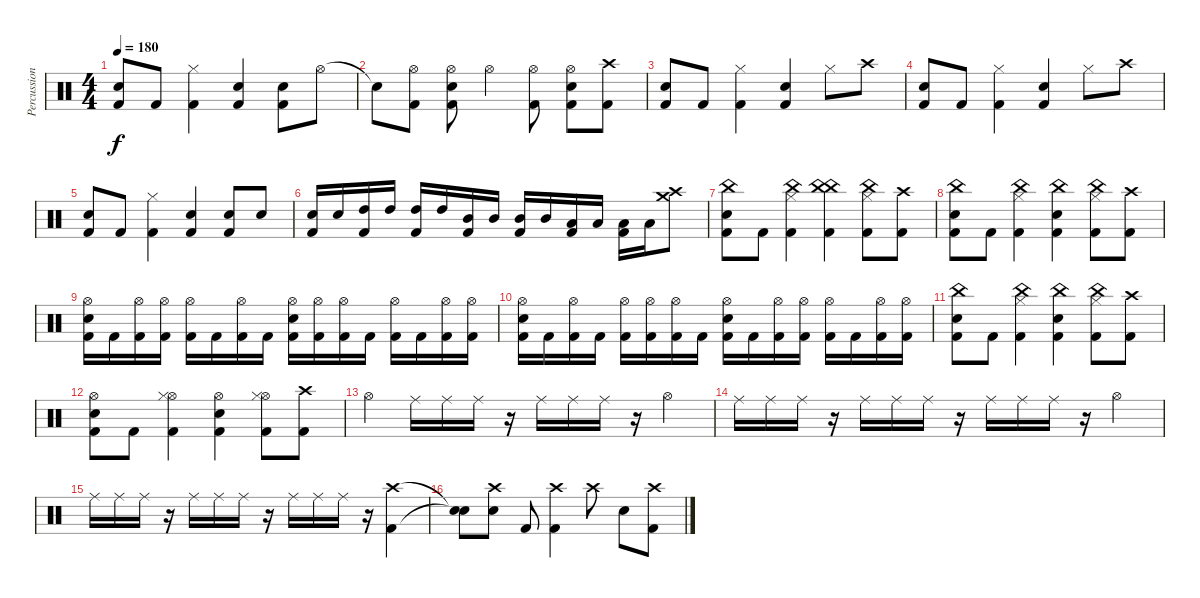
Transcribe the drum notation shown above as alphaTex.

\track ("Percussion" "Percussion") {instrument percussion}
\staff {score}
\articulation defaults
\ts (4 4)
\tempo 180
\clef neutral
\ks c
("Snare (hit) 2" "Kick (hit) 2").8{dy f} "Kick (hit) 2".8 ("Hi-Hat (closed)" "Kick (hit) 2").4 ("Snare (hit) 2" "Kick (hit) 2").4 ("Snare (hit) 2" "Kick (hit) 2").8 "Hi-Hat (open)".8 |
"Snare (hit)"{t}.8 ("Hi-Hat (open)" "Kick (hit) 2").8 ("Hi-Hat (open)" "Snare (hit) 2" "Kick (hit) 2").8 "Hi-Hat (open)".4 ("Hi-Hat (open)" "Kick (hit) 2").8 ("Hi-Hat (open)" "Snare (hit) 2" "Kick (hit) 2").8 ("Crash high (hit)" "Kick (hit) 2").8 |
("Snare (hit) 2" "Kick (hit) 2").8 "Kick (hit) 2".8 ("Hi-Hat (closed)" "Kick (hit) 2").4 ("Snare (hit) 2" "Kick (hit) 2").4 "Hi-Hat (closed)".8 "Crash high (hit)".8 |
("Snare (hit) 2" "Kick (hit) 2").8 "Kick (hit) 2".8 ("Hi-Hat (closed)" "Kick (hit) 2").4 ("Snare (hit) 2" "Kick (hit) 2").4 "Hi-Hat (closed)".8 "Crash high (hit)".8 |
("Snare (hit) 2" "Kick (hit) 2").8 "Kick (hit) 2".8 ("Hi-Hat (closed)" "Kick (hit) 2").4 ("Snare (hit) 2" "Kick (hit) 2").4 ("Snare (hit) 2" "Kick (hit) 2").8 "Snare (hit) 2".8 |
("Snare (hit) 2" "Kick (hit) 2").16 "Snare (hit) 2".16 ("High Tom (hit)" "Kick (hit) 2").16 "High Tom (hit)".16 ("High Tom (hit)" "Kick (hit) 2").16 "High Tom (hit)".16 ("Mid Tom (hit)" "Kick (hit) 2").16 "Mid Tom (hit)".16 ("Mid Tom (hit)" "Kick (hit) 2").16 "Mid Tom (hit)".16 ("Low Tom (hit)" "Kick (hit) 2").16 "Low Tom (hit)".16 ("Low Tom (hit)" "Kick (hit) 2").16 "Low Tom (hit)".16 ("Crash high (hit)" "Crash medium (hit)").8 |
("China (hit)" "Snare (hit) 2" "Kick (hit) 2").8 "Kick (hit) 2".8 ("China (hit)" "Hi-Hat (closed)" "Kick (hit) 2").4 ("China (hit)" "China (hit)" "Kick (hit) 2").4 ("China (hit)" "Hi-Hat (closed)" "Kick (hit) 2").8 ("Crash high (hit)" "Kick (hit) 2").8 |
("China (hit)" "Snare (hit) 2" "Kick (hit) 2").8 "Kick (hit) 2".8 ("China (hit)" "Hi-Hat (closed)" "Kick (hit) 2").4 ("China (hit)" "Snare (hit) 2" "Kick (hit) 2").4 ("China (hit)" "Hi-Hat (closed)" "Kick (hit) 2").8 ("Crash high (hit)" "Kick (hit) 2").8 |
("Hi-Hat (open)" "Snare (hit) 2" "Kick (hit) 2").16 "Kick (hit) 2".16 ("Hi-Hat (open)" "Kick (hit) 2").16 ("Hi-Hat (open)" "Kick (hit) 2").16 ("Hi-Hat (open)" "Kick (hit) 2").16 "Kick (hit) 2".16 ("Hi-Hat (open)" "Kick (hit) 2").16 "Kick (hit) 2".16 ("Hi-Hat (open)" "Snare (hit) 2" "Kick (hit) 2").16 ("Hi-Hat (open)" "Kick (hit) 2").16 ("Hi-Hat (open)" "Kick (hit) 2").16 "Kick (hit) 2".16 ("Hi-Hat (open)" "Kick (hit) 2").16 "Kick (hit) 2".16 ("Hi-Hat (open)" "Kick (hit) 2").16 ("Hi-Hat (open)" "Kick (hit) 2").16 |
("Hi-Hat (open)" "Snare (hit) 2" "Kick (hit) 2").16 "Kick (hit) 2".16 ("Hi-Hat (open)" "Kick (hit) 2").16 "Kick (hit) 2".16 ("Hi-Hat (open)" "Kick (hit) 2").16 ("Hi-Hat (open)" "Kick (hit) 2").16 ("Hi-Hat (open)" "Kick (hit) 2").16 "Kick (hit) 2".16 ("Hi-Hat (open)" "Snare (hit) 2" "Kick (hit) 2").16 "Kick (hit) 2".16 ("Hi-Hat (open)" "Kick (hit) 2").16 ("Hi-Hat (open)" "Kick (hit) 2").16 ("Hi-Hat (open)" "Kick (hit) 2").16 "Kick (hit) 2".16 ("Hi-Hat (open)" "Kick (hit) 2").16 ("Hi-Hat (open)" "Kick (hit) 2").16 |
("China (hit)" "Snare (hit) 2" "Kick (hit) 2").8 "Kick (hit) 2".8 ("China (hit)" "Hi-Hat (closed)" "Kick (hit) 2").4 ("China (hit)" "Snare (hit) 2" "Kick (hit) 2").4 ("China (hit)" "Hi-Hat (closed)" "Kick (hit) 2").8 ("Crash high (hit)" "Kick (hit) 2").8 |
("Hi-Hat (open)" "Snare (hit) 2" "Kick (hit) 2").8 "Kick (hit) 2".8 ("Hi-Hat (open)" "Hi-Hat (closed)" "Kick (hit) 2").4 ("Hi-Hat (open)" "Snare (hit) 2" "Kick (hit) 2").4 ("Hi-Hat (open)" "Hi-Hat (closed)" "Kick (hit) 2").8 ("Crash high (hit)" "Kick (hit) 2").8 |
"Hi-Hat (open)".4 "Ride (middle)".16 "Ride (middle)".16 "Ride (middle)".16 r.16 "Ride (middle)".16 "Ride (middle)".16 "Ride (middle)".16 r.16 "Hi-Hat (open)".4 |
"Ride (middle)".16 "Ride (middle)".16 "Ride (middle)".16 r.16 "Ride (middle)".16 "Ride (middle)".16 "Ride (middle)".16 r.16 "Ride (middle)".16 "Ride (middle)".16 "Ride (middle)".16 r.16 "Hi-Hat (open)".4 |
"Ride (middle)".16 "Ride (middle)".16 "Ride (middle)".16 r.16 "Ride (middle)".16 "Ride (middle)".16 "Ride (middle)".16 r.16 "Ride (middle)".16 "Ride (middle)".16 "Ride (middle)".16 r.16 ("Crash high (hit)" "Kick (hit) 2").4 |
("Snare (hit)"{t} "Snare (hit)"{t}).8 ("Crash high (hit)" "Snare (hit) 2").8 "Kick (hit) 2".8 ("Crash high (hit)" "Kick (hit) 2").4 "Crash high (hit)".8 "Snare (hit) 2".8 ("Crash high (hit)" "Kick (hit) 2").8
